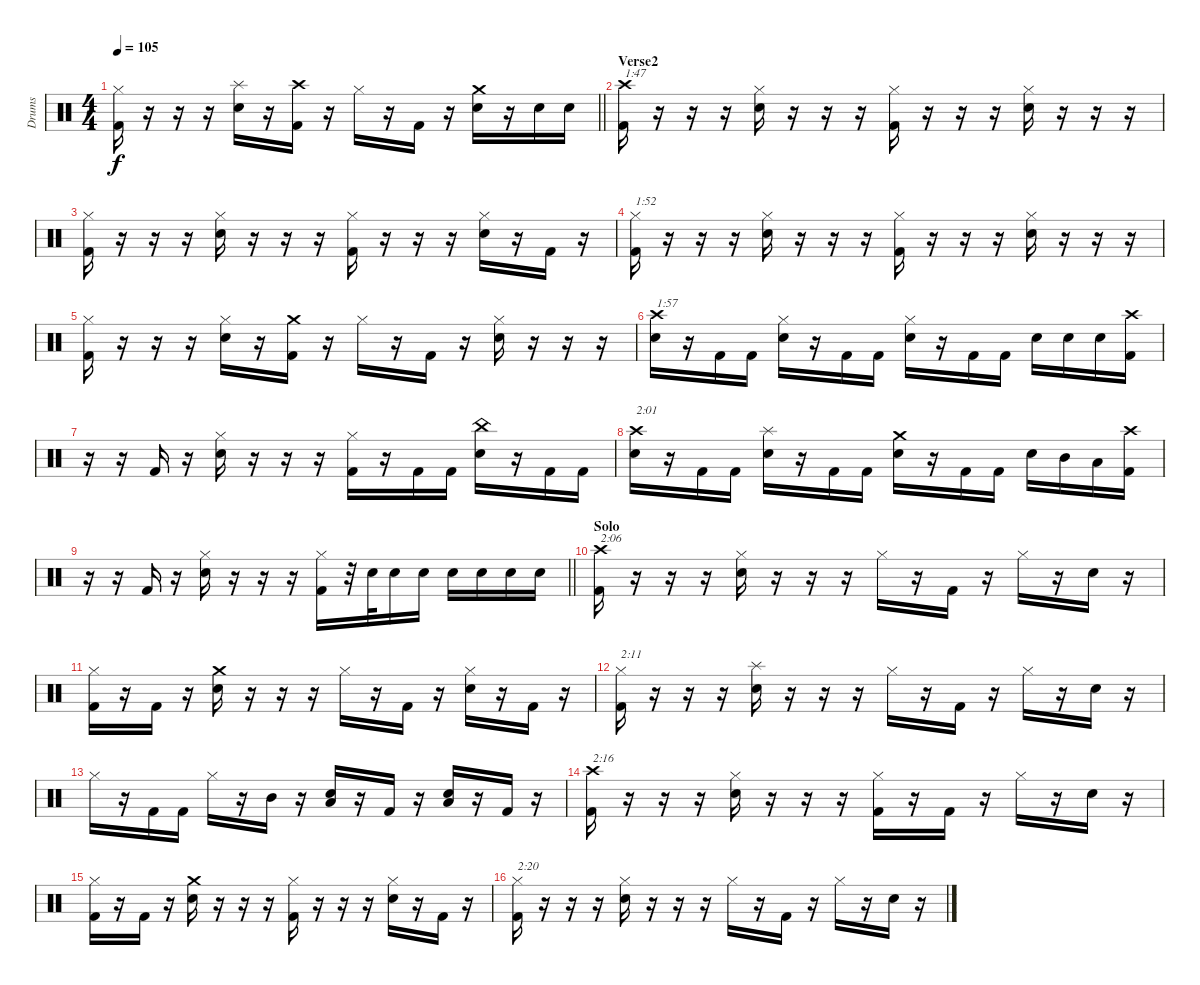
\track ("Drums" "Drums") {instrument percussion}
\staff {score}
\articulation defaults
\ts (4 4)
\tempo 105
\clef neutral
\barLineRight lightlight
\ks c
("Hi-Hat (closed)" "Kick (hit) 2").16{dy f} r.16 r.16 r.16 ("Splash (hit)" "Electric Snare (hit)").16 r.16 ("Crash high (hit)" "Kick (hit) 2").16 r.16 "Hi-Hat (closed)".16 r.16 "Kick (hit) 2".16 r.16 ("Crash medium (hit)" "Electric Snare (hit)").16 r.16 "Electric Snare (hit)".16 "Electric Snare (hit)".16 |
\section ("" "Verse2")
("Crash high (hit)" "Kick (hit) 2").16{txt "1:47"} r.16 r.16 r.16 ("Hi-Hat (closed)" "Electric Snare (hit)").16 r.16 r.16 r.16 ("Hi-Hat (closed)" "Kick (hit) 2").16 r.16 r.16 r.16 ("Hi-Hat (closed)" "Electric Snare (hit)").16 r.16 r.16 r.16 |
("Hi-Hat (closed)" "Kick (hit) 2").16 r.16 r.16 r.16 ("Hi-Hat (closed)" "Electric Snare (hit)").16 r.16 r.16 r.16 ("Hi-Hat (closed)" "Kick (hit) 2").16 r.16 r.16 r.16 ("Hi-Hat (closed)" "Electric Snare (hit)").16 r.16 "Kick (hit) 2".16 r.16 |
("Hi-Hat (closed)" "Kick (hit) 2").16{txt "1:52"} r.16 r.16 r.16 ("Hi-Hat (closed)" "Electric Snare (hit)").16 r.16 r.16 r.16 ("Hi-Hat (closed)" "Kick (hit) 2").16 r.16 r.16 r.16 ("Hi-Hat (closed)" "Electric Snare (hit)").16 r.16 r.16 r.16 |
("Hi-Hat (closed)" "Kick (hit) 2").16 r.16 r.16 r.16 ("Hi-Hat (closed)" "Electric Snare (hit)").16 r.16 ("Crash medium (hit)" "Kick (hit) 2").16 r.16 "Hi-Hat (closed)".16 r.16 "Kick (hit) 2".16 r.16 ("Hi-Hat (closed)" "Electric Snare (hit)").16 r.16 r.16 r.16 |
("Crash high (hit)" "Electric Snare (hit)").16{txt "1:57"} r.16 "Kick (hit) 2".16 "Kick (hit) 2".16 ("Hi-Hat (closed)" "Electric Snare (hit)").16 r.16 "Kick (hit) 2".16 "Kick (hit) 2".16 ("Hi-Hat (closed)" "Electric Snare (hit)").16 r.16 "Kick (hit) 2".16 "Kick (hit) 2".16 "Electric Snare (hit)".16 "Electric Snare (hit)".16 "Electric Snare (hit)".16 ("Crash high (hit)" "Kick (hit) 2").16 |
r.16 r.16 "Kick (hit) 2".16 r.16 ("Hi-Hat (closed)" "Electric Snare (hit)").16 r.16 r.16 r.16 ("Hi-Hat (closed)" "Kick (hit) 2").16 r.16 "Kick (hit) 2".16 "Kick (hit) 2".16 ("China (hit)" "Electric Snare (hit)").16 r.16 "Kick (hit) 2".16 "Kick (hit) 2".16 |
("Crash high (hit)" "Electric Snare (hit)").16{txt "2:01"} r.16 "Kick (hit) 2".16 "Kick (hit) 2".16 ("Splash (hit)" "Electric Snare (hit)").16 r.16 "Kick (hit) 2".16 "Kick (hit) 2".16 ("Crash medium (hit)" "Electric Snare (hit)").16 r.16 "Kick (hit) 2".16 "Kick (hit) 2".16 "Electric Snare (hit)".16 "Mid Tom (hit)".16 "Low Tom (hit)".16 ("Crash high (hit)" "Kick (hit) 2").16 |
\barLineRight lightlight
r.16 r.16 "Kick (hit) 2".16 r.16 ("Hi-Hat (closed)" "Electric Snare (hit)").16 r.16 r.16 r.16 ("Hi-Hat (closed)" "Kick (hit) 2").16 r.32 "Electric Snare (hit)".32 "Electric Snare (hit)".16 "Electric Snare (hit)".16 "Electric Snare (hit)".16 "Electric Snare (hit)".16 "Electric Snare (hit)".16 "Electric Snare (hit)".16 |
\section ("" "Solo")
("Crash high (hit)" "Kick (hit) 2").16{txt "2:06"} r.16 r.16 r.16 ("Hi-Hat (closed)" "Electric Snare (hit)").16 r.16 r.16 r.16 "Hi-Hat (closed)".16 r.16 "Kick (hit) 2".16 r.16 "Hi-Hat (closed)".16 r.16 "Electric Snare (hit)".16 r.16 |
("Hi-Hat (closed)" "Kick (hit) 2").16 r.16 "Kick (hit) 2".16 r.16 ("Crash medium (hit)" "Electric Snare (hit)").16 r.16 r.16 r.16 "Hi-Hat (closed)".16 r.16 "Kick (hit) 2".16 r.16 ("Hi-Hat (closed)" "Electric Snare (hit)").16 r.16 "Kick (hit) 2".16 r.16 |
("Hi-Hat (closed)" "Kick (hit) 2").16{txt "2:11"} r.16 r.16 r.16 ("Splash (hit)" "Electric Snare (hit)").16 r.16 r.16 r.16 "Hi-Hat (closed)".16 r.16 "Kick (hit) 2".16 r.16 "Hi-Hat (closed)".16 r.16 "Electric Snare (hit)".16 r.16 |
"Hi-Hat (closed)".16 r.16 "Kick (hit) 2".16 "Kick (hit) 2".16 "Hi-Hat (closed)".16 r.16 "Mid Tom (hit)".16 r.16 ("Low Floor Tom (hit)" "Electric Snare (hit)").16 r.16 "Kick (hit) 2".16 r.16 ("Low Floor Tom (hit)" "Electric Snare (hit)").16 r.16 "Kick (hit) 2".16 r.16 |
("Crash high (hit)" "Kick (hit) 2").16{txt "2:16"} r.16 r.16 r.16 ("Hi-Hat (closed)" "Electric Snare (hit)").16 r.16 r.16 r.16 ("Hi-Hat (closed)" "Kick (hit) 2").16 r.16 "Kick (hit) 2".16 r.16 "Hi-Hat (closed)".16 r.16 "Electric Snare (hit)".16 r.16 |
("Hi-Hat (closed)" "Kick (hit) 2").16 r.16 "Kick (hit) 2".16 r.16 ("Crash medium (hit)" "Electric Snare (hit)").16 r.16 r.16 r.16 ("Hi-Hat (closed)" "Kick (hit) 2").16 r.16 r.16 r.16 ("Hi-Hat (closed)" "Electric Snare (hit)").16 r.16 "Kick (hit) 2".16 r.16 |
("Hi-Hat (closed)" "Kick (hit) 2").16{txt "2:20"} r.16 r.16 r.16 ("Hi-Hat (closed)" "Electric Snare (hit)").16 r.16 r.16 r.16 "Hi-Hat (closed)".16 r.16 "Kick (hit) 2".16 r.16 "Hi-Hat (closed)".16 r.16 "Electric Snare (hit)".16 r.16
